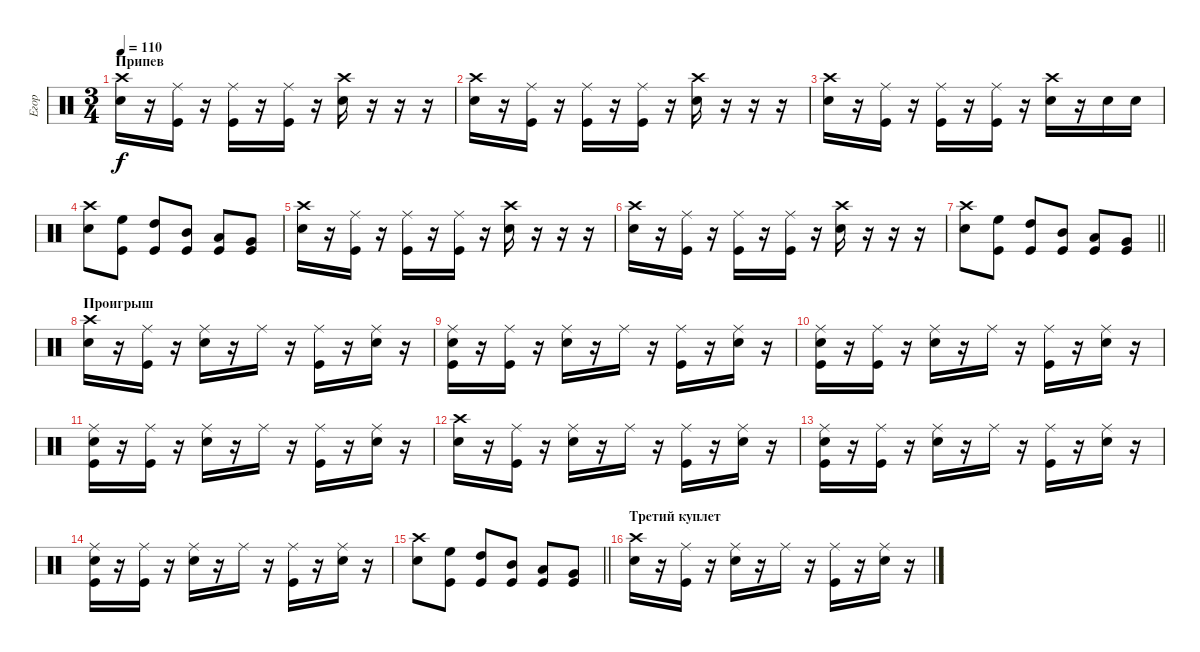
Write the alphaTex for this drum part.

\track ("Егор" "Егор") {instrument percussion}
\staff {score}
\articulation defaults
\ts (3 4)
\section ("" "Припев")
\tempo 110
\clef neutral
\ks c
("Snare (hit) 2" "Crash high (hit)").16{dy f} r.16 ("Ride (middle)" "Kick (hit)").16 r.16 ("Ride (middle)" "Kick (hit)").16 r.16 ("Ride (middle)" "Kick (hit)").16 r.16 ("Snare (hit) 2" "Crash high (hit)").16 r.16 r.16 r.16 |
("Snare (hit) 2" "Crash high (hit)").16 r.16 ("Ride (middle)" "Kick (hit)").16 r.16 ("Ride (middle)" "Kick (hit)").16 r.16 ("Ride (middle)" "Kick (hit)").16 r.16 ("Snare (hit) 2" "Crash high (hit)").16 r.16 r.16 r.16 |
("Snare (hit) 2" "Crash high (hit)").16 r.16 ("Ride (middle)" "Kick (hit)").16 r.16 ("Ride (middle)" "Kick (hit)").16 r.16 ("Ride (middle)" "Kick (hit)").16 r.16 ("Snare (hit) 2" "Crash high (hit)").16 r.16 "Snare (hit) 2".16 "Snare (hit) 2".16 |
("Snare (hit) 2" "Crash high (hit)").8 ("High Floor Tom (hit)" "Kick (hit)").8 ("High Tom (hit)" "Kick (hit)").8 ("Mid Tom (hit)" "Kick (hit)").8 ("Low Tom (hit)" "Kick (hit)").8 ("Very Low Tom (hit)" "Kick (hit)").8 |
("Snare (hit) 2" "Crash high (hit)").16 r.16 ("Ride (middle)" "Kick (hit)").16 r.16 ("Ride (middle)" "Kick (hit)").16 r.16 ("Ride (middle)" "Kick (hit)").16 r.16 ("Snare (hit) 2" "Crash high (hit)").16 r.16 r.16 r.16 |
("Snare (hit) 2" "Crash high (hit)").16 r.16 ("Ride (middle)" "Kick (hit)").16 r.16 ("Ride (middle)" "Kick (hit)").16 r.16 ("Ride (middle)" "Kick (hit)").16 r.16 ("Snare (hit) 2" "Crash high (hit)").16 r.16 r.16 r.16 |
\barLineRight lightlight
("Snare (hit) 2" "Crash high (hit)").8 ("High Floor Tom (hit)" "Kick (hit)").8 ("High Tom (hit)" "Kick (hit)").8 ("Mid Tom (hit)" "Kick (hit)").8 ("Low Tom (hit)" "Kick (hit)").8 ("Very Low Tom (hit)" "Kick (hit)").8 |
\section ("" "Проигрыш")
("Snare (hit) 2" "Crash high (hit)").16 r.16 ("Ride (middle)" "Kick (hit)").16 r.16 ("Snare (hit) 2" "Ride (middle)").16 r.16 "Ride (middle)".16 r.16 ("Ride (middle)" "Kick (hit)").16 r.16 ("Ride (middle)" "Snare (hit) 2").16 r.16 |
("Kick (hit)" "Ride (middle)" "Snare (hit) 2").16 r.16 ("Ride (middle)" "Kick (hit)").16 r.16 ("Snare (hit) 2" "Ride (middle)").16 r.16 "Ride (middle)".16 r.16 ("Ride (middle)" "Kick (hit)").16 r.16 ("Ride (middle)" "Snare (hit) 2").16 r.16 |
("Kick (hit)" "Ride (middle)" "Snare (hit) 2").16 r.16 ("Ride (middle)" "Kick (hit)").16 r.16 ("Snare (hit) 2" "Ride (middle)").16 r.16 "Ride (middle)".16 r.16 ("Ride (middle)" "Kick (hit)").16 r.16 ("Ride (middle)" "Snare (hit) 2").16 r.16 |
("Kick (hit)" "Ride (middle)" "Snare (hit) 2").16 r.16 ("Ride (middle)" "Kick (hit)").16 r.16 ("Snare (hit) 2" "Ride (middle)").16 r.16 "Ride (middle)".16 r.16 ("Ride (middle)" "Kick (hit)").16 r.16 ("Ride (middle)" "Snare (hit) 2").16 r.16 |
("Snare (hit) 2" "Crash high (hit)").16 r.16 ("Ride (middle)" "Kick (hit)").16 r.16 ("Snare (hit) 2" "Ride (middle)").16 r.16 "Ride (middle)".16 r.16 ("Ride (middle)" "Kick (hit)").16 r.16 ("Ride (middle)" "Snare (hit) 2").16 r.16 |
("Kick (hit)" "Ride (middle)" "Snare (hit) 2").16 r.16 ("Ride (middle)" "Kick (hit)").16 r.16 ("Snare (hit) 2" "Ride (middle)").16 r.16 "Ride (middle)".16 r.16 ("Ride (middle)" "Kick (hit)").16 r.16 ("Ride (middle)" "Snare (hit) 2").16 r.16 |
("Kick (hit)" "Ride (middle)" "Snare (hit) 2").16 r.16 ("Ride (middle)" "Kick (hit)").16 r.16 ("Snare (hit) 2" "Ride (middle)").16 r.16 "Ride (middle)".16 r.16 ("Ride (middle)" "Kick (hit)").16 r.16 ("Ride (middle)" "Snare (hit) 2").16 r.16 |
\barLineRight lightlight
("Snare (hit) 2" "Crash high (hit)").8 ("High Floor Tom (hit)" "Kick (hit)").8 ("High Tom (hit)" "Kick (hit)").8 ("Mid Tom (hit)" "Kick (hit)").8 ("Low Tom (hit)" "Kick (hit)").8 ("Very Low Tom (hit)" "Kick (hit)").8 |
\section ("" "Третий куплет")
("Snare (hit) 2" "Crash high (hit)").16 r.16 ("Ride (middle)" "Kick (hit)").16 r.16 ("Snare (hit) 2" "Ride (middle)").16 r.16 "Ride (middle)".16 r.16 ("Ride (middle)" "Kick (hit)").16 r.16 ("Ride (middle)" "Snare (hit) 2").16 r.16
